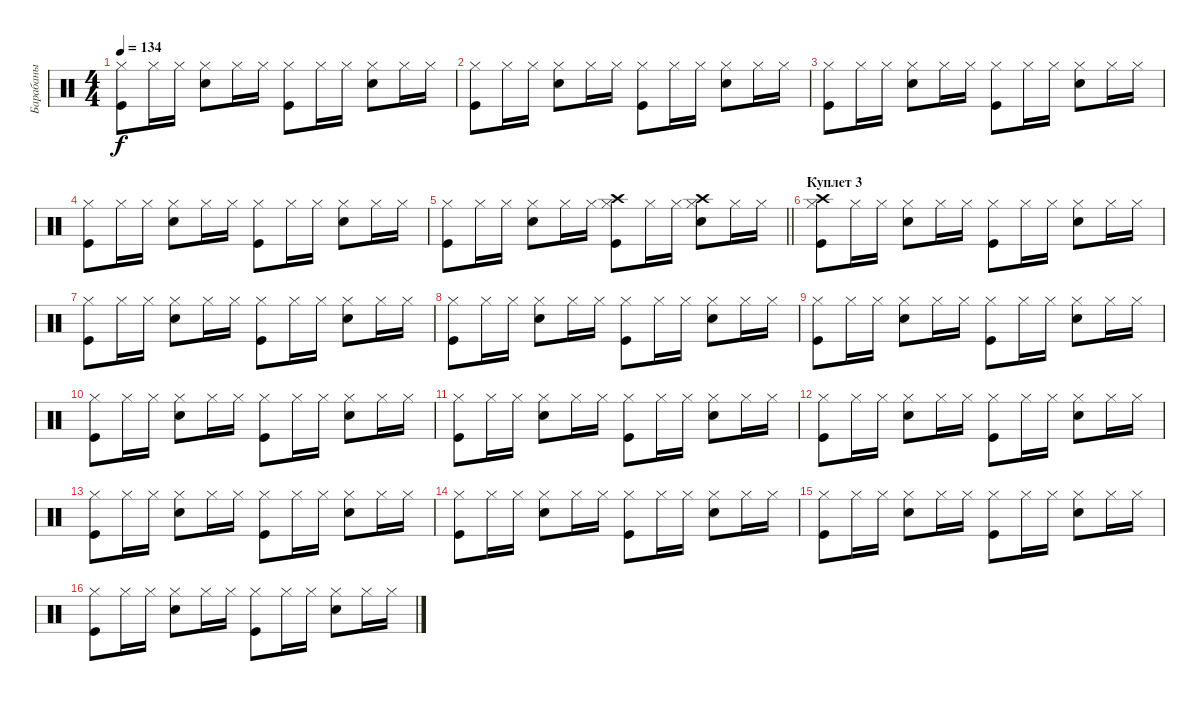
\track ("Барабаны" "Барабаны") {instrument percussion}
\staff {score}
\articulation defaults
\ts (4 4)
\tempo 134
\clef neutral
\ks c
("Kick (hit)" "Hi-Hat (closed)").8{dy f} "Hi-Hat (closed)".16 "Hi-Hat (closed)".16 ("Snare (hit) 2" "Hi-Hat (closed)").8 "Hi-Hat (closed)".16 "Hi-Hat (closed)".16 ("Kick (hit)" "Hi-Hat (closed)").8 "Hi-Hat (closed)".16 "Hi-Hat (closed)".16 ("Snare (hit) 2" "Hi-Hat (closed)").8 "Hi-Hat (closed)".16 "Hi-Hat (closed)".16 |
("Kick (hit)" "Hi-Hat (closed)").8 "Hi-Hat (closed)".16 "Hi-Hat (closed)".16 ("Snare (hit) 2" "Hi-Hat (closed)").8 "Hi-Hat (closed)".16 "Hi-Hat (closed)".16 ("Kick (hit)" "Hi-Hat (closed)").8 "Hi-Hat (closed)".16 "Hi-Hat (closed)".16 ("Snare (hit) 2" "Hi-Hat (closed)").8 "Hi-Hat (closed)".16 "Hi-Hat (closed)".16 |
("Kick (hit)" "Hi-Hat (closed)").8 "Hi-Hat (closed)".16 "Hi-Hat (closed)".16 ("Snare (hit) 2" "Hi-Hat (closed)").8 "Hi-Hat (closed)".16 "Hi-Hat (closed)".16 ("Kick (hit)" "Hi-Hat (closed)").8 "Hi-Hat (closed)".16 "Hi-Hat (closed)".16 ("Snare (hit) 2" "Hi-Hat (closed)").8 "Hi-Hat (closed)".16 "Hi-Hat (closed)".16 |
("Kick (hit)" "Hi-Hat (closed)").8 "Hi-Hat (closed)".16 "Hi-Hat (closed)".16 ("Snare (hit) 2" "Hi-Hat (closed)").8 "Hi-Hat (closed)".16 "Hi-Hat (closed)".16 ("Kick (hit)" "Hi-Hat (closed)").8 "Hi-Hat (closed)".16 "Hi-Hat (closed)".16 ("Snare (hit) 2" "Hi-Hat (closed)").8 "Hi-Hat (closed)".16 "Hi-Hat (closed)".16 |
\barLineRight lightlight
("Kick (hit)" "Hi-Hat (closed)").8 "Hi-Hat (closed)".16 "Hi-Hat (closed)".16 ("Snare (hit) 2" "Hi-Hat (closed)").8 "Hi-Hat (closed)".16 "Hi-Hat (closed)".16 ("Kick (hit)" "Hi-Hat (closed)" "Crash high (hit)").8 "Hi-Hat (closed)".16 "Hi-Hat (closed)".16 ("Snare (hit) 2" "Hi-Hat (closed)" "Crash high (hit)").8 "Hi-Hat (closed)".16 "Hi-Hat (closed)".16 |
\section ("" "Куплет 3")
("Kick (hit)" "Hi-Hat (closed)" "Crash high (hit)").8 "Hi-Hat (closed)".16 "Hi-Hat (closed)".16 ("Snare (hit) 2" "Hi-Hat (closed)").8 "Hi-Hat (closed)".16 "Hi-Hat (closed)".16 ("Kick (hit)" "Hi-Hat (closed)").8 "Hi-Hat (closed)".16 "Hi-Hat (closed)".16 ("Snare (hit) 2" "Hi-Hat (closed)").8 "Hi-Hat (closed)".16 "Hi-Hat (closed)".16 |
("Kick (hit)" "Hi-Hat (closed)").8 "Hi-Hat (closed)".16 "Hi-Hat (closed)".16 ("Snare (hit) 2" "Hi-Hat (closed)").8 "Hi-Hat (closed)".16 "Hi-Hat (closed)".16 ("Kick (hit)" "Hi-Hat (closed)").8 "Hi-Hat (closed)".16 "Hi-Hat (closed)".16 ("Snare (hit) 2" "Hi-Hat (closed)").8 "Hi-Hat (closed)".16 "Hi-Hat (closed)".16 |
("Kick (hit)" "Hi-Hat (closed)").8 "Hi-Hat (closed)".16 "Hi-Hat (closed)".16 ("Snare (hit) 2" "Hi-Hat (closed)").8 "Hi-Hat (closed)".16 "Hi-Hat (closed)".16 ("Kick (hit)" "Hi-Hat (closed)").8 "Hi-Hat (closed)".16 "Hi-Hat (closed)".16 ("Snare (hit) 2" "Hi-Hat (closed)").8 "Hi-Hat (closed)".16 "Hi-Hat (closed)".16 |
("Kick (hit)" "Hi-Hat (closed)").8 "Hi-Hat (closed)".16 "Hi-Hat (closed)".16 ("Snare (hit) 2" "Hi-Hat (closed)").8 "Hi-Hat (closed)".16 "Hi-Hat (closed)".16 ("Kick (hit)" "Hi-Hat (closed)").8 "Hi-Hat (closed)".16 "Hi-Hat (closed)".16 ("Snare (hit) 2" "Hi-Hat (closed)").8 "Hi-Hat (closed)".16 "Hi-Hat (closed)".16 |
("Kick (hit)" "Hi-Hat (closed)").8 "Hi-Hat (closed)".16 "Hi-Hat (closed)".16 ("Snare (hit) 2" "Hi-Hat (closed)").8 "Hi-Hat (closed)".16 "Hi-Hat (closed)".16 ("Kick (hit)" "Hi-Hat (closed)").8 "Hi-Hat (closed)".16 "Hi-Hat (closed)".16 ("Snare (hit) 2" "Hi-Hat (closed)").8 "Hi-Hat (closed)".16 "Hi-Hat (closed)".16 |
("Kick (hit)" "Hi-Hat (closed)").8 "Hi-Hat (closed)".16 "Hi-Hat (closed)".16 ("Snare (hit) 2" "Hi-Hat (closed)").8 "Hi-Hat (closed)".16 "Hi-Hat (closed)".16 ("Kick (hit)" "Hi-Hat (closed)").8 "Hi-Hat (closed)".16 "Hi-Hat (closed)".16 ("Snare (hit) 2" "Hi-Hat (closed)").8 "Hi-Hat (closed)".16 "Hi-Hat (closed)".16 |
("Kick (hit)" "Hi-Hat (closed)").8 "Hi-Hat (closed)".16 "Hi-Hat (closed)".16 ("Snare (hit) 2" "Hi-Hat (closed)").8 "Hi-Hat (closed)".16 "Hi-Hat (closed)".16 ("Kick (hit)" "Hi-Hat (closed)").8 "Hi-Hat (closed)".16 "Hi-Hat (closed)".16 ("Snare (hit) 2" "Hi-Hat (closed)").8 "Hi-Hat (closed)".16 "Hi-Hat (closed)".16 |
("Kick (hit)" "Hi-Hat (closed)").8 "Hi-Hat (closed)".16 "Hi-Hat (closed)".16 ("Snare (hit) 2" "Hi-Hat (closed)").8 "Hi-Hat (closed)".16 "Hi-Hat (closed)".16 ("Kick (hit)" "Hi-Hat (closed)").8 "Hi-Hat (closed)".16 "Hi-Hat (closed)".16 ("Snare (hit) 2" "Hi-Hat (closed)").8 "Hi-Hat (closed)".16 "Hi-Hat (closed)".16 |
("Kick (hit)" "Hi-Hat (closed)").8 "Hi-Hat (closed)".16 "Hi-Hat (closed)".16 ("Snare (hit) 2" "Hi-Hat (closed)").8 "Hi-Hat (closed)".16 "Hi-Hat (closed)".16 ("Kick (hit)" "Hi-Hat (closed)").8 "Hi-Hat (closed)".16 "Hi-Hat (closed)".16 ("Snare (hit) 2" "Hi-Hat (closed)").8 "Hi-Hat (closed)".16 "Hi-Hat (closed)".16 |
("Kick (hit)" "Hi-Hat (closed)").8 "Hi-Hat (closed)".16 "Hi-Hat (closed)".16 ("Snare (hit) 2" "Hi-Hat (closed)").8 "Hi-Hat (closed)".16 "Hi-Hat (closed)".16 ("Kick (hit)" "Hi-Hat (closed)").8 "Hi-Hat (closed)".16 "Hi-Hat (closed)".16 ("Snare (hit) 2" "Hi-Hat (closed)").8 "Hi-Hat (closed)".16 "Hi-Hat (closed)".16 |
("Kick (hit)" "Hi-Hat (closed)").8 "Hi-Hat (closed)".16 "Hi-Hat (closed)".16 ("Snare (hit) 2" "Hi-Hat (closed)").8 "Hi-Hat (closed)".16 "Hi-Hat (closed)".16 ("Kick (hit)" "Hi-Hat (closed)").8 "Hi-Hat (closed)".16 "Hi-Hat (closed)".16 ("Snare (hit) 2" "Hi-Hat (closed)").8 "Hi-Hat (closed)".16 "Hi-Hat (closed)".16
